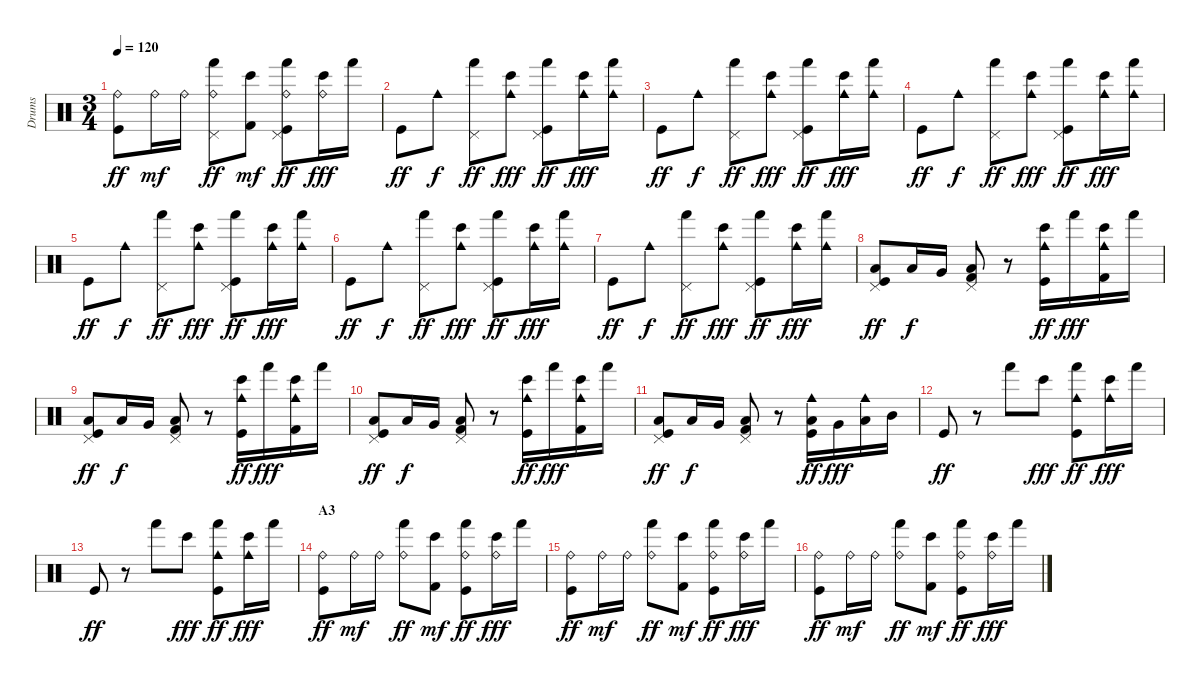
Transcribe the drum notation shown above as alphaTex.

\track ("Drums" "Drums") {instrument percussion}
\staff {score}
\articulation defaults
\ts (3 4)
\tempo 120
\clef neutral
\ks c
("Ride (bell)" "Kick (hit)").8{dy ff} "Ride (bell)".16{dy mf} "Ride (bell)".16 ("Ride (bell)" "Pedal Hi-Hat (hit)" "Hand (hit)").8{dy ff} ("Bongo High (hit)" "Kick (hit) 2").8{dy mf} ("Ride (bell)" "Pedal Hi-Hat (hit)" "Hand (hit)" "Kick (hit)").8{dy ff} ("Ride (bell)" "Bongo High (hit)").16{dy fff} "Hand (hit)".16 |
"Kick (hit)".8{dy ff} "Cowbell medium (hit)".8{dy f} ("Pedal Hi-Hat (hit)" "Hand (hit)").8{dy ff} ("Cowbell medium (hit)" "Bongo High (hit)").8{dy fff} ("Pedal Hi-Hat (hit)" "Hand (hit)" "Kick (hit)").8{dy ff} ("Cowbell medium (hit)" "Bongo High (hit)").16{dy fff} ("Cowbell medium (hit)" "Hand (hit)").16 |
"Kick (hit)".8{dy ff} "Cowbell medium (hit)".8{dy f} ("Pedal Hi-Hat (hit)" "Hand (hit)").8{dy ff} ("Cowbell medium (hit)" "Bongo High (hit)").8{dy fff} ("Pedal Hi-Hat (hit)" "Hand (hit)" "Kick (hit)").8{dy ff} ("Cowbell medium (hit)" "Bongo High (hit)").16{dy fff} ("Cowbell medium (hit)" "Hand (hit)").16 |
"Kick (hit)".8{dy ff} "Cowbell medium (hit)".8{dy f} ("Pedal Hi-Hat (hit)" "Hand (hit)").8{dy ff} ("Cowbell medium (hit)" "Bongo High (hit)").8{dy fff} ("Pedal Hi-Hat (hit)" "Hand (hit)" "Kick (hit)").8{dy ff} ("Cowbell medium (hit)" "Bongo High (hit)").16{dy fff} ("Cowbell medium (hit)" "Hand (hit)").16 |
"Kick (hit)".8{dy ff} "Cowbell medium (hit)".8{dy f} ("Pedal Hi-Hat (hit)" "Hand (hit)").8{dy ff} ("Cowbell medium (hit)" "Bongo High (hit)").8{dy fff} ("Pedal Hi-Hat (hit)" "Hand (hit)" "Kick (hit)").8{dy ff} ("Cowbell medium (hit)" "Bongo High (hit)").16{dy fff} ("Cowbell medium (hit)" "Hand (hit)").16 |
"Kick (hit)".8{dy ff} "Cowbell medium (hit)".8{dy f} ("Pedal Hi-Hat (hit)" "Hand (hit)").8{dy ff} ("Cowbell medium (hit)" "Bongo High (hit)").8{dy fff} ("Pedal Hi-Hat (hit)" "Hand (hit)" "Kick (hit)").8{dy ff} ("Cowbell medium (hit)" "Bongo High (hit)").16{dy fff} ("Cowbell medium (hit)" "Hand (hit)").16 |
"Kick (hit)".8{dy ff} "Cowbell medium (hit)".8{dy f} ("Pedal Hi-Hat (hit)" "Hand (hit)").8{dy ff} ("Cowbell medium (hit)" "Bongo High (hit)").8{dy fff} ("Pedal Hi-Hat (hit)" "Hand (hit)" "Kick (hit)").8{dy ff} ("Cowbell medium (hit)" "Bongo High (hit)").16{dy fff} ("Cowbell medium (hit)" "Hand (hit)").16 |
("Pedal Hi-Hat (hit)" "Low Floor Tom (hit)" "Kick (hit)").8{dy ff} "Low Tom (hit)".16{dy f} "Very Low Tom (hit)".16 ("Pedal Hi-Hat (hit)" "Low Floor Tom (hit)" "Kick (hit) 2").8 r.8 ("Cowbell medium (hit)" "Bongo High (hit)" "Kick (hit)").16{dy ff} "Hand (hit)".16{dy fff} ("Cowbell medium (hit)" "Bongo High (hit)" "Kick (hit) 2").16 "Hand (hit)".16 |
("Pedal Hi-Hat (hit)" "Low Floor Tom (hit)" "Kick (hit)").8{dy ff} "Low Tom (hit)".16{dy f} "Very Low Tom (hit)".16 ("Pedal Hi-Hat (hit)" "Low Floor Tom (hit)" "Kick (hit) 2").8 r.8 ("Cowbell medium (hit)" "Bongo High (hit)" "Kick (hit)").16{dy ff} "Hand (hit)".16{dy fff} ("Cowbell medium (hit)" "Bongo High (hit)" "Kick (hit) 2").16 "Hand (hit)".16 |
("Pedal Hi-Hat (hit)" "Low Floor Tom (hit)" "Kick (hit)").8{dy ff} "Low Tom (hit)".16{dy f} "Very Low Tom (hit)".16 ("Pedal Hi-Hat (hit)" "Low Floor Tom (hit)" "Kick (hit) 2").8 r.8 ("Cowbell medium (hit)" "Bongo High (hit)" "Kick (hit)").16{dy ff} "Hand (hit)".16{dy fff} ("Cowbell medium (hit)" "Bongo High (hit)" "Kick (hit) 2").16 "Hand (hit)".16 |
("Pedal Hi-Hat (hit)" "Low Floor Tom (hit)" "Kick (hit)").8{dy ff} "Low Tom (hit)".16{dy f} "Very Low Tom (hit)".16 ("Pedal Hi-Hat (hit)" "Low Floor Tom (hit)" "Kick (hit) 2").8 r.8 ("Cowbell medium (hit)" "Low Floor Tom (hit)" "Kick (hit)").16{dy ff} "Very Low Tom (hit)".16{dy fff} ("Cowbell medium (hit)" "Low Tom (hit)").16 "Mid Tom (hit)".16 |
"Kick (hit)".8{dy ff} r.8 "Hand (hit)".8 "Bongo High (hit)".8{dy fff} ("Cowbell medium (hit)" "Hand (hit)" "Kick (hit)").8{dy ff} ("Cowbell medium (hit)" "Bongo High (hit)").16{dy fff} "Hand (hit)".16 |
"Kick (hit)".8{dy ff} r.8 "Hand (hit)".8 "Bongo High (hit)".8{dy fff} ("Cowbell medium (hit)" "Hand (hit)" "Kick (hit)").8{dy ff} ("Cowbell medium (hit)" "Bongo High (hit)").16{dy fff} "Hand (hit)".16 |
\section ("" "A3")
("Ride (bell)" "Kick (hit)").8{dy ff} "Ride (bell)".16{dy mf} "Ride (bell)".16 ("Ride (bell)" "Hand (hit)").8{dy ff} ("Bongo High (hit)" "Kick (hit) 2").8{dy mf} ("Ride (bell)" "Hand (hit)" "Kick (hit)").8{dy ff} ("Ride (bell)" "Bongo High (hit)").16{dy fff} "Hand (hit)".16 |
("Ride (bell)" "Kick (hit)").8{dy ff} "Ride (bell)".16{dy mf} "Ride (bell)".16 ("Ride (bell)" "Hand (hit)").8{dy ff} ("Bongo High (hit)" "Kick (hit) 2").8{dy mf} ("Ride (bell)" "Hand (hit)" "Kick (hit)").8{dy ff} ("Ride (bell)" "Bongo High (hit)").16{dy fff} "Hand (hit)".16 |
("Ride (bell)" "Kick (hit)").8{dy ff} "Ride (bell)".16{dy mf} "Ride (bell)".16 ("Ride (bell)" "Hand (hit)").8{dy ff} ("Bongo High (hit)" "Kick (hit) 2").8{dy mf} ("Ride (bell)" "Hand (hit)" "Kick (hit)").8{dy ff} ("Ride (bell)" "Bongo High (hit)").16{dy fff} "Hand (hit)".16
